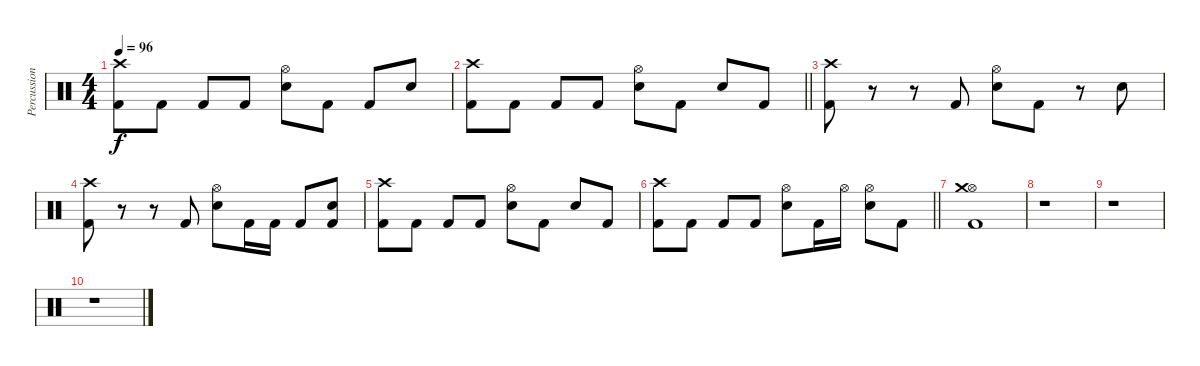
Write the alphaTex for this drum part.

\track ("Percussion" "Percussion") {instrument percussion}
\staff {score}
\articulation defaults
\ts (4 4)
\tempo 96
\clef neutral
\ks c
("Crash high (hit)" "Kick (hit) 2").8{dy f} "Kick (hit) 2".8 "Kick (hit) 2".8 "Kick (hit) 2".8 ("Hi-Hat (open)" "Electric Snare (hit)").8 "Kick (hit) 2".8 "Kick (hit) 2".8 "Electric Snare (hit)".8 |
\barLineRight lightlight
("Crash high (hit)" "Kick (hit) 2").8 "Kick (hit) 2".8 "Kick (hit) 2".8 "Kick (hit) 2".8 ("Hi-Hat (open)" "Electric Snare (hit)").8 "Kick (hit) 2".8 "Electric Snare (hit)".8 "Kick (hit) 2".8 |
("Crash high (hit)" "Kick (hit) 2").8 r.8 r.8 "Kick (hit) 2".8 ("Hi-Hat (open)" "Electric Snare (hit)").8 "Kick (hit) 2".8 r.8 "Electric Snare (hit)".8 |
("Crash high (hit)" "Kick (hit) 2").8 r.8 r.8 "Kick (hit) 2".8 ("Hi-Hat (open)" "Electric Snare (hit)").8 "Kick (hit) 2".16 "Kick (hit) 2".16 "Kick (hit) 2".8 ("Electric Snare (hit)" "Kick (hit) 2").8 |
("Crash high (hit)" "Kick (hit) 2").8 "Kick (hit) 2".8 "Kick (hit) 2".8 "Kick (hit) 2".8 ("Hi-Hat (open)" "Electric Snare (hit)").8 "Kick (hit) 2".8 "Electric Snare (hit)".8 "Kick (hit) 2".8 |
\barLineRight lightlight
("Crash high (hit)" "Kick (hit) 2").8 "Kick (hit) 2".8 "Kick (hit) 2".8 "Kick (hit) 2".8 ("Hi-Hat (open)" "Electric Snare (hit)").8 "Kick (hit) 2".16 "Hi-Hat (open)".16 ("Hi-Hat (open)" "Electric Snare (hit)").8 "Kick (hit) 2".8 |
("Hi-Hat (open)" "Crash medium (hit)" "Kick (hit) 2").1 |
r.1 |
r.1 |
r.1
